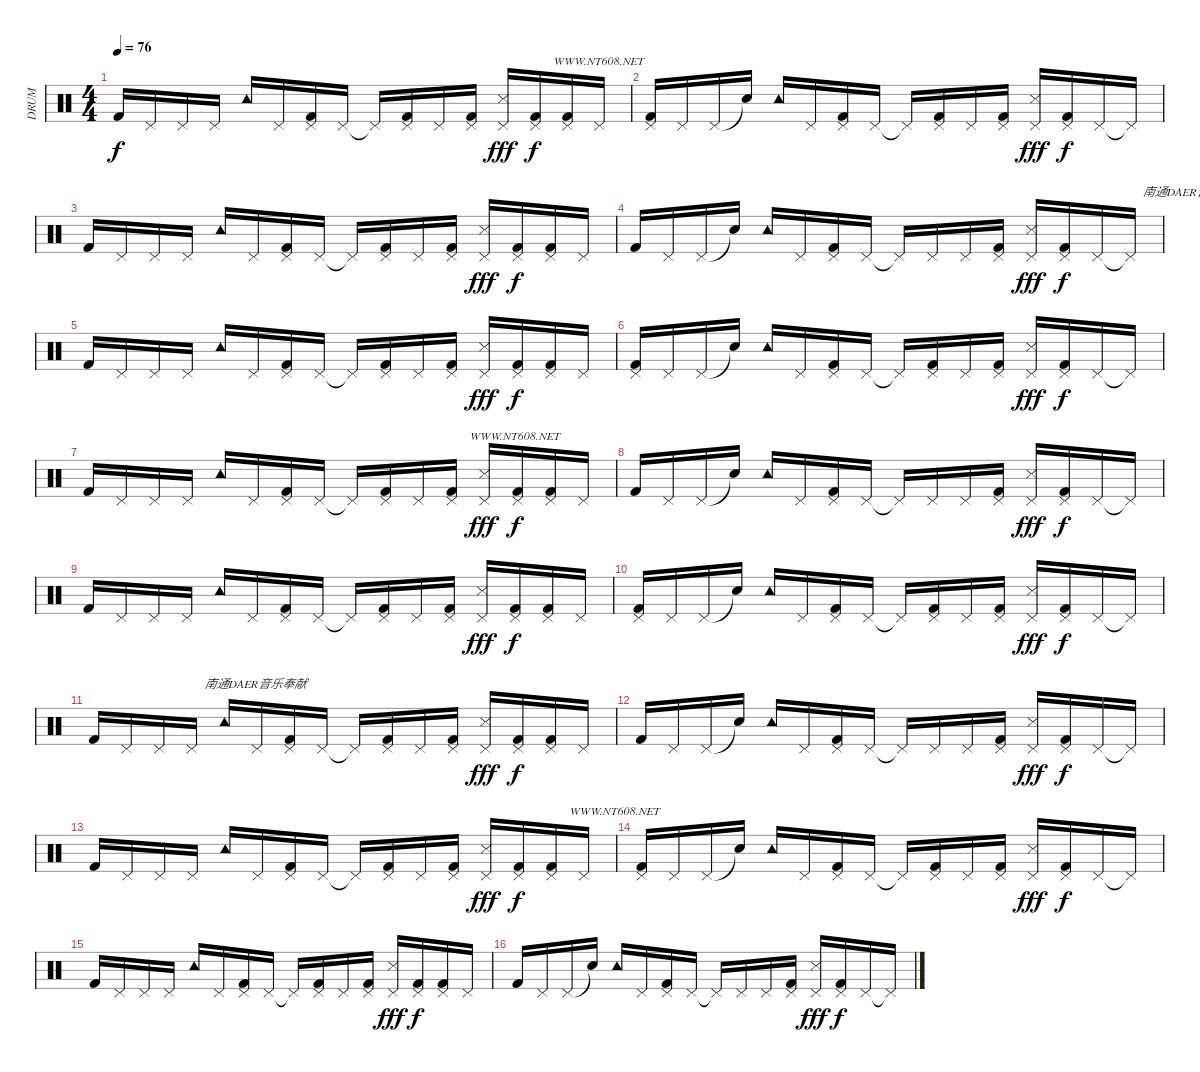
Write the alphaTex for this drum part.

\track ("DRUM" "DRUM") {instrument percussion}
\staff {score}
\articulation defaults
\ts (4 4)
\tempo 76
\clef neutral
\ks c "Kick (hit) 2".16{dy f} "Pedal Hi-Hat (hit)".16 "Pedal Hi-Hat (hit)".16 "Pedal Hi-Hat (hit)".16 "Tambourine (hit)".16 "Pedal Hi-Hat (hit)".16
("Pedal Hi-Hat (hit)" "Kick (hit) 2").16 "Pedal Hi-Hat (hit)".16 "Pedal Hi-Hat (hit)"{t}.16 ("Pedal Hi-Hat (hit)" "Kick (hit) 2").16 "Pedal Hi-Hat (hit)".16 ("Pedal Hi-Hat (hit)" "Kick (hit) 2").16 ("Pedal Hi-Hat (hit)" "Snare (side stick) 3").16{dy fff} ("Pedal Hi-Hat (hit)" "Kick (hit) 2").16{txt "      WWW.NT608.NET" dy f} ("Pedal Hi-Hat (hit)" "Kick (hit) 2").16 "Pedal Hi-Hat (hit)".16 |
("Pedal Hi-Hat (hit)" "Kick (hit) 2").16 "Pedal Hi-Hat (hit)".16 "Pedal Hi-Hat (hit)".16 "Snare (hit)"{t}.16 "Tambourine (hit)".16 "Pedal Hi-Hat (hit)".16 ("Pedal Hi-Hat (hit)" "Kick (hit) 2").16 "Pedal Hi-Hat (hit)".16 "Pedal Hi-Hat (hit)"{t}.16 ("Pedal Hi-Hat (hit)" "Kick (hit) 2").16 "Pedal Hi-Hat (hit)".16 ("Pedal Hi-Hat (hit)" "Kick (hit) 2").16 ("Pedal Hi-Hat (hit)" "Snare (side stick) 3").16{dy fff} ("Pedal Hi-Hat (hit)" "Kick (hit) 2").16{dy f} "Pedal Hi-Hat (hit)".16 "Pedal Hi-Hat (hit)"{t}.16 |
"Kick (hit) 2".16 "Pedal Hi-Hat (hit)".16 "Pedal Hi-Hat (hit)".16 "Pedal Hi-Hat (hit)".16 "Tambourine (hit)".16 "Pedal Hi-Hat (hit)".16 ("Pedal Hi-Hat (hit)" "Kick (hit) 2").16 "Pedal Hi-Hat (hit)".16 "Pedal Hi-Hat (hit)"{t}.16 ("Pedal Hi-Hat (hit)" "Kick (hit) 2").16 "Pedal Hi-Hat (hit)".16 ("Pedal Hi-Hat (hit)" "Kick (hit) 2").16 ("Pedal Hi-Hat (hit)" "Snare (side stick) 3").16{dy fff} ("Pedal Hi-Hat (hit)" "Kick (hit) 2").16{dy f} ("Pedal Hi-Hat (hit)" "Kick (hit) 2").16 "Pedal Hi-Hat (hit)".16 |
"Kick (hit) 2".16 "Pedal Hi-Hat (hit)".16 "Pedal Hi-Hat (hit)".16 "Snare (hit)"{t}.16 "Tambourine (hit)".16 "Pedal Hi-Hat (hit)".16 ("Pedal Hi-Hat (hit)" "Kick (hit) 2").16 "Pedal Hi-Hat (hit)".16 "Pedal Hi-Hat (hit)"{t}.16 "Pedal Hi-Hat (hit)".16 "Pedal Hi-Hat (hit)".16 ("Pedal Hi-Hat (hit)" "Kick (hit) 2").16 ("Pedal Hi-Hat (hit)" "Snare (side stick) 3").16{dy fff} ("Pedal Hi-Hat (hit)" "Kick (hit) 2").16{dy f} "Pedal Hi-Hat (hit)".16{txt "               南通DAER音乐奉献"} "Pedal Hi-Hat (hit)"{t}.16 |
"Kick (hit) 2".16 "Pedal Hi-Hat (hit)".16 "Pedal Hi-Hat (hit)".16 "Pedal Hi-Hat (hit)".16 "Tambourine (hit)".16 "Pedal Hi-Hat (hit)".16 ("Pedal Hi-Hat (hit)" "Kick (hit) 2").16 "Pedal Hi-Hat (hit)".16 "Pedal Hi-Hat (hit)"{t}.16 ("Pedal Hi-Hat (hit)" "Kick (hit) 2").16 "Pedal Hi-Hat (hit)".16 ("Pedal Hi-Hat (hit)" "Kick (hit) 2").16 ("Pedal Hi-Hat (hit)" "Snare (side stick) 3").16{dy fff} ("Pedal Hi-Hat (hit)" "Kick (hit) 2").16{dy f} ("Pedal Hi-Hat (hit)" "Kick (hit) 2").16 "Pedal Hi-Hat (hit)".16 |
("Pedal Hi-Hat (hit)" "Kick (hit) 2").16 "Pedal Hi-Hat (hit)".16 "Pedal Hi-Hat (hit)".16 "Snare (hit)"{t}.16 "Tambourine (hit)".16 "Pedal Hi-Hat (hit)".16 ("Pedal Hi-Hat (hit)" "Kick (hit) 2").16 "Pedal Hi-Hat (hit)".16 "Pedal Hi-Hat (hit)"{t}.16 ("Pedal Hi-Hat (hit)" "Kick (hit) 2").16 "Pedal Hi-Hat (hit)".16 ("Pedal Hi-Hat (hit)" "Kick (hit) 2").16 ("Pedal Hi-Hat (hit)" "Snare (side stick) 3").16{dy fff} ("Pedal Hi-Hat (hit)" "Kick (hit) 2").16{dy f} "Pedal Hi-Hat (hit)".16 "Pedal Hi-Hat (hit)"{t}.16 |
"Kick (hit) 2".16 "Pedal Hi-Hat (hit)".16 "Pedal Hi-Hat (hit)".16 "Pedal Hi-Hat (hit)".16 "Tambourine (hit)".16 "Pedal Hi-Hat (hit)".16 ("Pedal Hi-Hat (hit)" "Kick (hit) 2").16 "Pedal Hi-Hat (hit)".16 "Pedal Hi-Hat (hit)"{t}.16 ("Pedal Hi-Hat (hit)" "Kick (hit) 2").16 "Pedal Hi-Hat (hit)".16 ("Pedal Hi-Hat (hit)" "Kick (hit) 2").16{txt "      WWW.NT608.NET"} ("Pedal Hi-Hat (hit)" "Snare (side stick) 3").16{dy fff} ("Pedal Hi-Hat (hit)" "Kick (hit) 2").16{dy f} ("Pedal Hi-Hat (hit)" "Kick (hit) 2").16 "Pedal Hi-Hat (hit)".16 |
"Kick (hit) 2".16 "Pedal Hi-Hat (hit)".16 "Pedal Hi-Hat (hit)".16 "Snare (hit)"{t}.16 "Tambourine (hit)".16 "Pedal Hi-Hat (hit)".16 ("Pedal Hi-Hat (hit)" "Kick (hit) 2").16 "Pedal Hi-Hat (hit)".16 "Pedal Hi-Hat (hit)"{t}.16 "Pedal Hi-Hat (hit)".16 "Pedal Hi-Hat (hit)".16 ("Pedal Hi-Hat (hit)" "Kick (hit) 2").16 ("Pedal Hi-Hat (hit)" "Snare (side stick) 3").16{dy fff} ("Pedal Hi-Hat (hit)" "Kick (hit) 2").16{dy f} "Pedal Hi-Hat (hit)".16 "Pedal Hi-Hat (hit)"{t}.16 |
"Kick (hit) 2".16 "Pedal Hi-Hat (hit)".16 "Pedal Hi-Hat (hit)".16 "Pedal Hi-Hat (hit)".16 "Tambourine (hit)".16 "Pedal Hi-Hat (hit)".16 ("Pedal Hi-Hat (hit)" "Kick (hit) 2").16 "Pedal Hi-Hat (hit)".16 "Pedal Hi-Hat (hit)"{t}.16 ("Pedal Hi-Hat (hit)" "Kick (hit) 2").16 "Pedal Hi-Hat (hit)".16 ("Pedal Hi-Hat (hit)" "Kick (hit) 2").16 ("Pedal Hi-Hat (hit)" "Snare (side stick) 3").16{dy fff} ("Pedal Hi-Hat (hit)" "Kick (hit) 2").16{dy f} ("Pedal Hi-Hat (hit)" "Kick (hit) 2").16 "Pedal Hi-Hat (hit)".16 |
("Pedal Hi-Hat (hit)" "Kick (hit) 2").16 "Pedal Hi-Hat (hit)".16 "Pedal Hi-Hat (hit)".16 "Snare (hit)"{t}.16 "Tambourine (hit)".16 "Pedal Hi-Hat (hit)".16 ("Pedal Hi-Hat (hit)" "Kick (hit) 2").16 "Pedal Hi-Hat (hit)".16 "Pedal Hi-Hat (hit)"{t}.16 ("Pedal Hi-Hat (hit)" "Kick (hit) 2").16 "Pedal Hi-Hat (hit)".16 ("Pedal Hi-Hat (hit)" "Kick (hit) 2").16 ("Pedal Hi-Hat (hit)" "Snare (side stick) 3").16{dy fff} ("Pedal Hi-Hat (hit)" "Kick (hit) 2").16{dy f} "Pedal Hi-Hat (hit)".16 "Pedal Hi-Hat (hit)"{t}.16 |
"Kick (hit) 2".16 "Pedal Hi-Hat (hit)".16 "Pedal Hi-Hat (hit)".16{txt "               南通DAER音乐奉献"} "Pedal Hi-Hat (hit)".16 "Tambourine (hit)".16 "Pedal Hi-Hat (hit)".16 ("Pedal Hi-Hat (hit)" "Kick (hit) 2").16 "Pedal Hi-Hat (hit)".16 "Pedal Hi-Hat (hit)"{t}.16 ("Pedal Hi-Hat (hit)" "Kick (hit) 2").16 "Pedal Hi-Hat (hit)".16 ("Pedal Hi-Hat (hit)" "Kick (hit) 2").16 ("Pedal Hi-Hat (hit)" "Snare (side stick) 3").16{dy fff} ("Pedal Hi-Hat (hit)" "Kick (hit) 2").16{dy f} ("Pedal Hi-Hat (hit)" "Kick (hit) 2").16 "Pedal Hi-Hat (hit)".16 |
"Kick (hit) 2".16 "Pedal Hi-Hat (hit)".16 "Pedal Hi-Hat (hit)".16 "Snare (hit)"{t}.16 "Tambourine (hit)".16 "Pedal Hi-Hat (hit)".16 ("Pedal Hi-Hat (hit)" "Kick (hit) 2").16 "Pedal Hi-Hat (hit)".16 "Pedal Hi-Hat (hit)"{t}.16 "Pedal Hi-Hat (hit)".16 "Pedal Hi-Hat (hit)".16 ("Pedal Hi-Hat (hit)" "Kick (hit) 2").16 ("Pedal Hi-Hat (hit)" "Snare (side stick) 3").16{dy fff} ("Pedal Hi-Hat (hit)" "Kick (hit) 2").16{dy f} "Pedal Hi-Hat (hit)".16 "Pedal Hi-Hat (hit)"{t}.16 |
"Kick (hit) 2".16 "Pedal Hi-Hat (hit)".16 "Pedal Hi-Hat (hit)".16 "Pedal Hi-Hat (hit)".16 "Tambourine (hit)".16 "Pedal Hi-Hat (hit)".16 ("Pedal Hi-Hat (hit)" "Kick (hit) 2").16 "Pedal Hi-Hat (hit)".16 "Pedal Hi-Hat (hit)"{t}.16 ("Pedal Hi-Hat (hit)" "Kick (hit) 2").16 "Pedal Hi-Hat (hit)".16 ("Pedal Hi-Hat (hit)" "Kick (hit) 2").16 ("Pedal Hi-Hat (hit)" "Snare (side stick) 3").16{dy fff} ("Pedal Hi-Hat (hit)" "Kick (hit) 2").16{dy f} ("Pedal Hi-Hat (hit)" "Kick (hit) 2").16{txt "      WWW.NT608.NET"} "Pedal Hi-Hat (hit)".16 |
("Pedal Hi-Hat (hit)" "Kick (hit) 2").16 "Pedal Hi-Hat (hit)".16 "Pedal Hi-Hat (hit)".16 "Snare (hit)"{t}.16 "Tambourine (hit)".16 "Pedal Hi-Hat (hit)".16 ("Pedal Hi-Hat (hit)" "Kick (hit) 2").16 "Pedal Hi-Hat (hit)".16 "Pedal Hi-Hat (hit)"{t}.16 ("Pedal Hi-Hat (hit)" "Kick (hit) 2").16 "Pedal Hi-Hat (hit)".16 ("Pedal Hi-Hat (hit)" "Kick (hit) 2").16 ("Pedal Hi-Hat (hit)" "Snare (side stick) 3").16{dy fff} ("Pedal Hi-Hat (hit)" "Kick (hit) 2").16{dy f} "Pedal Hi-Hat (hit)".16 "Pedal Hi-Hat (hit)"{t}.16 |
"Kick (hit) 2".16 "Pedal Hi-Hat (hit)".16 "Pedal Hi-Hat (hit)".16 "Pedal Hi-Hat (hit)".16 "Tambourine (hit)".16 "Pedal Hi-Hat (hit)".16 ("Pedal Hi-Hat (hit)" "Kick (hit) 2").16 "Pedal Hi-Hat (hit)".16 "Pedal Hi-Hat (hit)"{t}.16 ("Pedal Hi-Hat (hit)" "Kick (hit) 2").16 "Pedal Hi-Hat (hit)".16 ("Pedal Hi-Hat (hit)" "Kick (hit) 2").16 ("Pedal Hi-Hat (hit)" "Snare (side stick) 3").16{dy fff} ("Pedal Hi-Hat (hit)" "Kick (hit) 2").16{dy f} ("Pedal Hi-Hat (hit)" "Kick (hit) 2").16 "Pedal Hi-Hat (hit)".16 |
"Kick (hit) 2".16 "Pedal Hi-Hat (hit)".16 "Pedal Hi-Hat (hit)".16 "Snare (hit)"{t}.16 "Tambourine (hit)".16 "Pedal Hi-Hat (hit)".16 ("Pedal Hi-Hat (hit)" "Kick (hit) 2").16 "Pedal Hi-Hat (hit)".16 "Pedal Hi-Hat (hit)"{t}.16 "Pedal Hi-Hat (hit)".16 "Pedal Hi-Hat (hit)".16 ("Pedal Hi-Hat (hit)" "Kick (hit) 2").16 ("Pedal Hi-Hat (hit)" "Snare (side stick) 3").16{dy fff} ("Pedal Hi-Hat (hit)" "Kick (hit) 2").16{dy f} "Pedal Hi-Hat (hit)".16 "Pedal Hi-Hat (hit)"{t}.16
